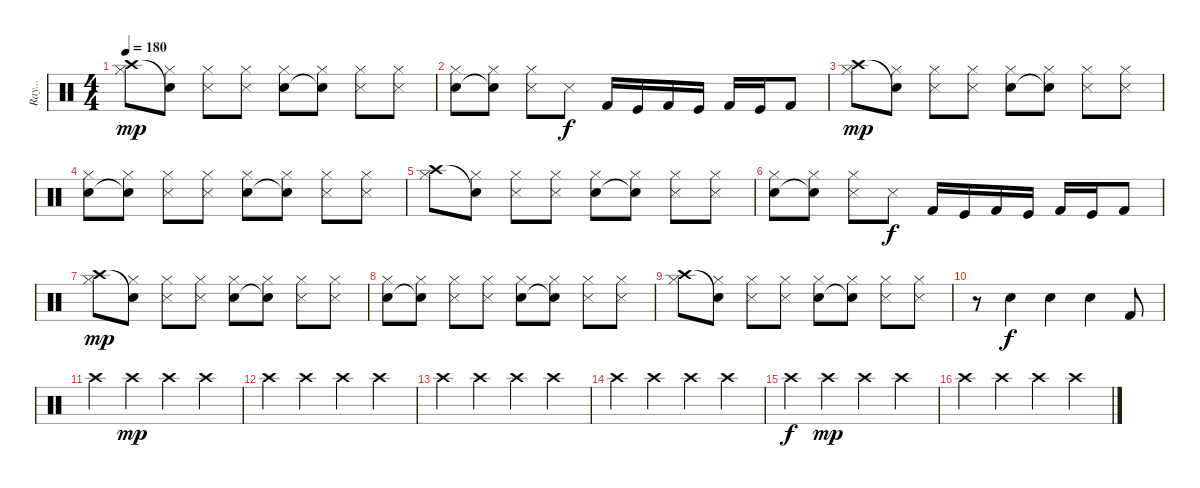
\track ("Ray..." "Ray...") {instrument percussion}
\staff {score}
\articulation defaults
\ts (4 4)
\tempo 180
\clef neutral
\ks c
("Crash high (hit)" "Hi-Hat (closed)").8{dy mp} ("Snare (hit)"{t} "Hi-Hat (closed)").8 ("Snare (side stick) 3" "Hi-Hat (closed)").8 ("Snare (side stick) 3" "Hi-Hat (closed)").8 ("Snare (hit) 2" "Hi-Hat (closed)").8 ("Snare (hit)"{t} "Hi-Hat (closed)").8 ("Snare (side stick) 3" "Hi-Hat (closed)").8 ("Snare (side stick) 3" "Hi-Hat (closed)").8 |
("Snare (hit) 2" "Hi-Hat (closed)").8 ("Snare (hit)"{t} "Hi-Hat (closed)").8 ("Snare (side stick) 3" "Hi-Hat (closed)").8 "Snare (side stick) 3".8{dy f} "Kick (hit) 2".16 "Kick (hit)".16 "Kick (hit) 2".16 "Kick (hit)".16 "Kick (hit) 2".16 "Kick (hit)".16 "Kick (hit) 2".8 |
("Crash high (hit)" "Hi-Hat (closed)").8{dy mp} ("Snare (hit)"{t} "Hi-Hat (closed)").8 ("Snare (side stick) 3" "Hi-Hat (closed)").8 ("Snare (side stick) 3" "Hi-Hat (closed)").8 ("Snare (hit) 2" "Hi-Hat (closed)").8 ("Snare (hit)"{t} "Hi-Hat (closed)").8 ("Snare (side stick) 3" "Hi-Hat (closed)").8 ("Snare (side stick) 3" "Hi-Hat (closed)").8 |
("Snare (hit) 2" "Hi-Hat (closed)").8 ("Snare (hit)"{t} "Hi-Hat (closed)").8 ("Snare (side stick) 3" "Hi-Hat (closed)").8 ("Snare (side stick) 3" "Hi-Hat (closed)").8 ("Snare (hit) 2" "Hi-Hat (closed)").8 ("Snare (hit)"{t} "Hi-Hat (closed)").8 ("Snare (side stick) 3" "Hi-Hat (closed)").8 ("Snare (side stick) 3" "Hi-Hat (closed)").8 |
("Crash high (hit)" "Hi-Hat (closed)").8 ("Snare (hit)"{t} "Hi-Hat (closed)").8 ("Snare (side stick) 3" "Hi-Hat (closed)").8 ("Snare (side stick) 3" "Hi-Hat (closed)").8 ("Snare (hit) 2" "Hi-Hat (closed)").8 ("Snare (hit)"{t} "Hi-Hat (closed)").8 ("Snare (side stick) 3" "Hi-Hat (closed)").8 ("Snare (side stick) 3" "Hi-Hat (closed)").8 |
("Snare (hit) 2" "Hi-Hat (closed)").8 ("Snare (hit)"{t} "Hi-Hat (closed)").8 ("Snare (side stick) 3" "Hi-Hat (closed)").8 "Snare (side stick) 3".8{dy f} "Kick (hit) 2".16 "Kick (hit)".16 "Kick (hit) 2".16 "Kick (hit)".16 "Kick (hit) 2".16 "Kick (hit)".16 "Kick (hit) 2".8 |
("Crash high (hit)" "Hi-Hat (closed)").8{dy mp} ("Snare (hit)"{t} "Hi-Hat (closed)").8 ("Snare (side stick) 3" "Hi-Hat (closed)").8 ("Snare (side stick) 3" "Hi-Hat (closed)").8 ("Snare (hit) 2" "Hi-Hat (closed)").8 ("Snare (hit)"{t} "Hi-Hat (closed)").8 ("Snare (side stick) 3" "Hi-Hat (closed)").8 ("Snare (side stick) 3" "Hi-Hat (closed)").8 |
("Snare (hit) 2" "Hi-Hat (closed)").8 ("Snare (hit)"{t} "Hi-Hat (closed)").8 ("Snare (side stick) 3" "Hi-Hat (closed)").8 ("Snare (side stick) 3" "Hi-Hat (closed)").8 ("Snare (hit) 2" "Hi-Hat (closed)").8 ("Snare (hit)"{t} "Hi-Hat (closed)").8 ("Snare (side stick) 3" "Hi-Hat (closed)").8 ("Snare (side stick) 3" "Hi-Hat (closed)").8 |
("Crash high (hit)" "Hi-Hat (closed)").8 ("Snare (hit)"{t} "Hi-Hat (closed)").8 ("Snare (side stick) 3" "Hi-Hat (closed)").8 ("Snare (side stick) 3" "Hi-Hat (closed)").8 ("Snare (hit) 2" "Hi-Hat (closed)").8 ("Snare (hit)"{t} "Hi-Hat (closed)").8 ("Snare (side stick) 3" "Hi-Hat (closed)").8 ("Snare (side stick) 3" "Hi-Hat (closed)").8 |
r.8 "Snare (hit) 2".4{dy f} "Snare (hit) 2".4 "Snare (hit) 2".4 "Kick (hit) 2".8 |
"Crash high (hit)".4 "Crash high (hit)".4{dy mp} "Crash high (hit)".4 "Crash high (hit)".4 |
"Crash high (hit)".4 "Crash high (hit)".4 "Crash high (hit)".4 "Crash high (hit)".4 |
"Crash high (hit)".4 "Crash high (hit)".4 "Crash high (hit)".4 "Crash high (hit)".4 |
"Crash high (hit)".4 "Crash high (hit)".4 "Crash high (hit)".4 "Crash high (hit)".4 |
"Crash high (hit)".4{dy f} "Crash high (hit)".4{dy mp} "Crash high (hit)".4 "Crash high (hit)".4 |
"Crash high (hit)".4 "Crash high (hit)".4 "Crash high (hit)".4 "Crash high (hit)".4
